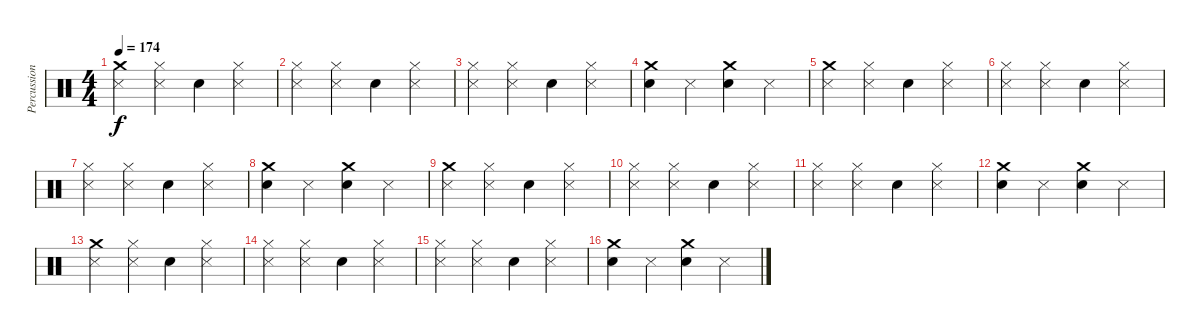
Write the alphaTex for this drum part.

\track ("Percussion" "Percussion") {instrument percussion}
\staff {score}
\articulation defaults
\ts (4 4)
\tempo 174
\clef neutral
\ks c
("Crash medium (hit)" "Metronome (hit)").4{dy f} ("Hi-Hat (closed)" "Metronome (hit)").4 "Electric Snare (hit)".4 ("Hi-Hat (closed)" "Metronome (hit)").4 |
("Hi-Hat (closed)" "Metronome (hit)").4 ("Hi-Hat (closed)" "Metronome (hit)").4 "Electric Snare (hit)".4 ("Hi-Hat (closed)" "Metronome (hit)").4 |
("Hi-Hat (closed)" "Metronome (hit)").4 ("Hi-Hat (closed)" "Metronome (hit)").4 "Electric Snare (hit)".4 ("Hi-Hat (closed)" "Metronome (hit)").4 |
("Crash medium (hit)" "Electric Snare (hit)").4 "Metronome (hit)".4 ("Crash medium (hit)" "Electric Snare (hit)").4 "Metronome (hit)".4 |
("Crash medium (hit)" "Metronome (hit)").4 ("Hi-Hat (closed)" "Metronome (hit)").4 "Electric Snare (hit)".4 ("Hi-Hat (closed)" "Metronome (hit)").4 |
("Hi-Hat (closed)" "Metronome (hit)").4 ("Hi-Hat (closed)" "Metronome (hit)").4 "Electric Snare (hit)".4 ("Hi-Hat (closed)" "Metronome (hit)").4 |
("Hi-Hat (closed)" "Metronome (hit)").4 ("Hi-Hat (closed)" "Metronome (hit)").4 "Electric Snare (hit)".4 ("Hi-Hat (closed)" "Metronome (hit)").4 |
("Crash medium (hit)" "Electric Snare (hit)").4 "Metronome (hit)".4 ("Crash medium (hit)" "Electric Snare (hit)").4 "Metronome (hit)".4 |
("Crash medium (hit)" "Metronome (hit)").4 ("Hi-Hat (closed)" "Metronome (hit)").4 "Electric Snare (hit)".4 ("Hi-Hat (closed)" "Metronome (hit)").4 |
("Hi-Hat (closed)" "Metronome (hit)").4 ("Hi-Hat (closed)" "Metronome (hit)").4 "Electric Snare (hit)".4 ("Hi-Hat (closed)" "Metronome (hit)").4 |
("Hi-Hat (closed)" "Metronome (hit)").4 ("Hi-Hat (closed)" "Metronome (hit)").4 "Electric Snare (hit)".4 ("Hi-Hat (closed)" "Metronome (hit)").4 |
("Crash medium (hit)" "Electric Snare (hit)").4 "Metronome (hit)".4 ("Crash medium (hit)" "Electric Snare (hit)").4 "Metronome (hit)".4 |
("Crash medium (hit)" "Metronome (hit)").4 ("Hi-Hat (closed)" "Metronome (hit)").4 "Electric Snare (hit)".4 ("Hi-Hat (closed)" "Metronome (hit)").4 |
("Hi-Hat (closed)" "Metronome (hit)").4 ("Hi-Hat (closed)" "Metronome (hit)").4 "Electric Snare (hit)".4 ("Hi-Hat (closed)" "Metronome (hit)").4 |
("Hi-Hat (closed)" "Metronome (hit)").4 ("Hi-Hat (closed)" "Metronome (hit)").4 "Electric Snare (hit)".4 ("Hi-Hat (closed)" "Metronome (hit)").4 |
("Crash medium (hit)" "Electric Snare (hit)").4 "Metronome (hit)".4 ("Crash medium (hit)" "Electric Snare (hit)").4 "Metronome (hit)".4
